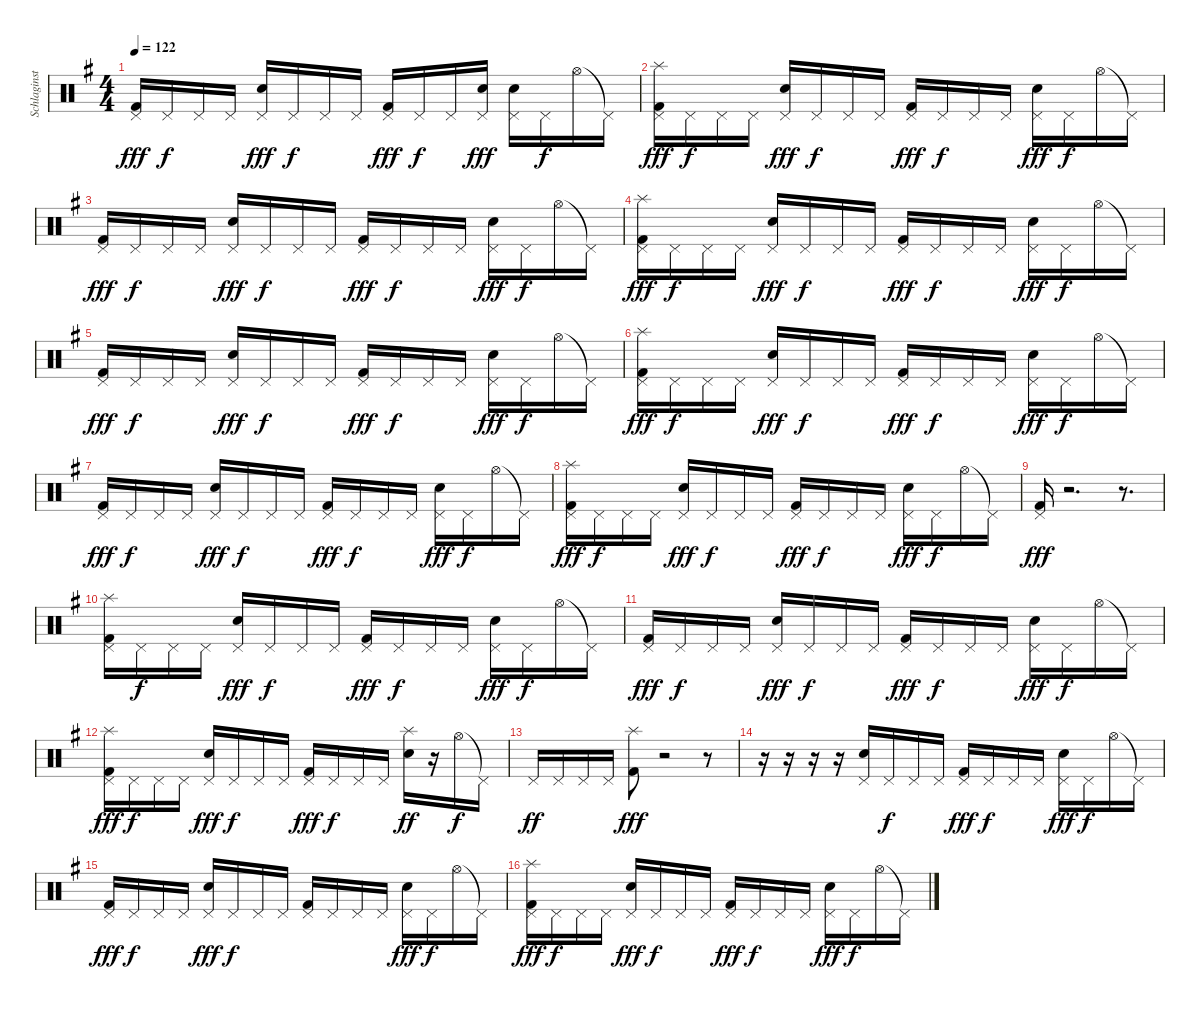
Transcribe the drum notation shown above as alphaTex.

\track ("Schlaginstrumente - Auswahl" "Schlaginst") {instrument percussion}
\staff {score}
\articulation defaults
\ts (4 4)
\tempo 122
\clef neutral
\ks g
("Pedal Hi-Hat (hit)" "Kick (hit) 2").16{dy fff} "Pedal Hi-Hat (hit)".16{dy f} "Pedal Hi-Hat (hit)".16 "Pedal Hi-Hat (hit)".16 ("Pedal Hi-Hat (hit)" "Electric Snare (hit)").16{dy fff} "Pedal Hi-Hat (hit)".16{dy f} "Pedal Hi-Hat (hit)".16 "Pedal Hi-Hat (hit)".16 ("Pedal Hi-Hat (hit)" "Kick (hit) 2").16{dy fff} "Pedal Hi-Hat (hit)".16{dy f} "Pedal Hi-Hat (hit)".16 ("Pedal Hi-Hat (hit)" "Electric Snare (hit)").16{dy fff} ("Pedal Hi-Hat (hit)" "Electric Snare (hit)").16 "Pedal Hi-Hat (hit)".16{dy f} "Hi-Hat (open)".16 "Pedal Hi-Hat (hit)"{t}.16 |
("Splash (hit)" "Pedal Hi-Hat (hit)" "Kick (hit) 2").16{dy fff} "Pedal Hi-Hat (hit)".16{dy f} "Pedal Hi-Hat (hit)".16 "Pedal Hi-Hat (hit)".16 ("Pedal Hi-Hat (hit)" "Electric Snare (hit)").16{dy fff} "Pedal Hi-Hat (hit)".16{dy f} "Pedal Hi-Hat (hit)".16 "Pedal Hi-Hat (hit)".16 ("Pedal Hi-Hat (hit)" "Kick (hit) 2").16{dy fff} "Pedal Hi-Hat (hit)".16{dy f} "Pedal Hi-Hat (hit)".16 "Pedal Hi-Hat (hit)".16 ("Pedal Hi-Hat (hit)" "Electric Snare (hit)").16{dy fff} "Pedal Hi-Hat (hit)".16{dy f} "Hi-Hat (open)".16 "Pedal Hi-Hat (hit)"{t}.16 |
("Pedal Hi-Hat (hit)" "Kick (hit) 2").16{dy fff} "Pedal Hi-Hat (hit)".16{dy f} "Pedal Hi-Hat (hit)".16 "Pedal Hi-Hat (hit)".16 ("Pedal Hi-Hat (hit)" "Electric Snare (hit)").16{dy fff} "Pedal Hi-Hat (hit)".16{dy f} "Pedal Hi-Hat (hit)".16 "Pedal Hi-Hat (hit)".16 ("Pedal Hi-Hat (hit)" "Kick (hit) 2").16{dy fff} "Pedal Hi-Hat (hit)".16{dy f} "Pedal Hi-Hat (hit)".16 "Pedal Hi-Hat (hit)".16 ("Pedal Hi-Hat (hit)" "Electric Snare (hit)").16{dy fff} "Pedal Hi-Hat (hit)".16{dy f} "Hi-Hat (open)".16 "Pedal Hi-Hat (hit)"{t}.16 |
("Splash (hit)" "Pedal Hi-Hat (hit)" "Kick (hit) 2").16{dy fff} "Pedal Hi-Hat (hit)".16{dy f} "Pedal Hi-Hat (hit)".16 "Pedal Hi-Hat (hit)".16 ("Pedal Hi-Hat (hit)" "Electric Snare (hit)").16{dy fff} "Pedal Hi-Hat (hit)".16{dy f} "Pedal Hi-Hat (hit)".16 "Pedal Hi-Hat (hit)".16 ("Pedal Hi-Hat (hit)" "Kick (hit) 2").16{dy fff} "Pedal Hi-Hat (hit)".16{dy f} "Pedal Hi-Hat (hit)".16 "Pedal Hi-Hat (hit)".16 ("Pedal Hi-Hat (hit)" "Electric Snare (hit)").16{dy fff} "Pedal Hi-Hat (hit)".16{dy f} "Hi-Hat (open)".16 "Pedal Hi-Hat (hit)"{t}.16 |
("Pedal Hi-Hat (hit)" "Kick (hit) 2").16{dy fff} "Pedal Hi-Hat (hit)".16{dy f} "Pedal Hi-Hat (hit)".16 "Pedal Hi-Hat (hit)".16 ("Pedal Hi-Hat (hit)" "Electric Snare (hit)").16{dy fff} "Pedal Hi-Hat (hit)".16{dy f} "Pedal Hi-Hat (hit)".16 "Pedal Hi-Hat (hit)".16 ("Pedal Hi-Hat (hit)" "Kick (hit) 2").16{dy fff} "Pedal Hi-Hat (hit)".16{dy f} "Pedal Hi-Hat (hit)".16 "Pedal Hi-Hat (hit)".16 ("Pedal Hi-Hat (hit)" "Electric Snare (hit)").16{dy fff} "Pedal Hi-Hat (hit)".16{dy f} "Hi-Hat (open)".16 "Pedal Hi-Hat (hit)"{t}.16 |
("Splash (hit)" "Pedal Hi-Hat (hit)" "Kick (hit) 2").16{dy fff} "Pedal Hi-Hat (hit)".16{dy f} "Pedal Hi-Hat (hit)".16 "Pedal Hi-Hat (hit)".16 ("Pedal Hi-Hat (hit)" "Electric Snare (hit)").16{dy fff} "Pedal Hi-Hat (hit)".16{dy f} "Pedal Hi-Hat (hit)".16 "Pedal Hi-Hat (hit)".16 ("Pedal Hi-Hat (hit)" "Kick (hit) 2").16{dy fff} "Pedal Hi-Hat (hit)".16{dy f} "Pedal Hi-Hat (hit)".16 "Pedal Hi-Hat (hit)".16 ("Pedal Hi-Hat (hit)" "Electric Snare (hit)").16{dy fff} "Pedal Hi-Hat (hit)".16{dy f} "Hi-Hat (open)".16 "Pedal Hi-Hat (hit)"{t}.16 |
("Pedal Hi-Hat (hit)" "Kick (hit) 2").16{dy fff} "Pedal Hi-Hat (hit)".16{dy f} "Pedal Hi-Hat (hit)".16 "Pedal Hi-Hat (hit)".16 ("Pedal Hi-Hat (hit)" "Electric Snare (hit)").16{dy fff} "Pedal Hi-Hat (hit)".16{dy f} "Pedal Hi-Hat (hit)".16 "Pedal Hi-Hat (hit)".16 ("Pedal Hi-Hat (hit)" "Kick (hit) 2").16{dy fff} "Pedal Hi-Hat (hit)".16{dy f} "Pedal Hi-Hat (hit)".16 "Pedal Hi-Hat (hit)".16 ("Pedal Hi-Hat (hit)" "Electric Snare (hit)").16{dy fff} "Pedal Hi-Hat (hit)".16{dy f} "Hi-Hat (open)".16 "Pedal Hi-Hat (hit)"{t}.16 |
("Splash (hit)" "Pedal Hi-Hat (hit)" "Kick (hit) 2").16{dy fff} "Pedal Hi-Hat (hit)".16{dy f} "Pedal Hi-Hat (hit)".16 "Pedal Hi-Hat (hit)".16 ("Pedal Hi-Hat (hit)" "Electric Snare (hit)").16{dy fff} "Pedal Hi-Hat (hit)".16{dy f} "Pedal Hi-Hat (hit)".16 "Pedal Hi-Hat (hit)".16 ("Pedal Hi-Hat (hit)" "Kick (hit) 2").16{dy fff} "Pedal Hi-Hat (hit)".16{dy f} "Pedal Hi-Hat (hit)".16 "Pedal Hi-Hat (hit)".16 ("Pedal Hi-Hat (hit)" "Electric Snare (hit)").16{dy fff} "Pedal Hi-Hat (hit)".16{dy f} "Hi-Hat (open)".16 "Pedal Hi-Hat (hit)"{t}.16 |
("Pedal Hi-Hat (hit)" "Kick (hit) 2").16{dy fff} r.2{d} r.8{d} |
("Splash (hit)" "Pedal Hi-Hat (hit)" "Kick (hit) 2").16 "Pedal Hi-Hat (hit)".16{dy f} "Pedal Hi-Hat (hit)".16 "Pedal Hi-Hat (hit)".16 ("Pedal Hi-Hat (hit)" "Electric Snare (hit)").16{dy fff} "Pedal Hi-Hat (hit)".16{dy f} "Pedal Hi-Hat (hit)".16 "Pedal Hi-Hat (hit)".16 ("Pedal Hi-Hat (hit)" "Kick (hit) 2").16{dy fff} "Pedal Hi-Hat (hit)".16{dy f} "Pedal Hi-Hat (hit)".16 "Pedal Hi-Hat (hit)".16 ("Pedal Hi-Hat (hit)" "Electric Snare (hit)").16{dy fff} "Pedal Hi-Hat (hit)".16{dy f} "Hi-Hat (open)".16 "Pedal Hi-Hat (hit)"{t}.16 |
("Pedal Hi-Hat (hit)" "Kick (hit) 2").16{dy fff} "Pedal Hi-Hat (hit)".16{dy f} "Pedal Hi-Hat (hit)".16 "Pedal Hi-Hat (hit)".16 ("Pedal Hi-Hat (hit)" "Electric Snare (hit)").16{dy fff} "Pedal Hi-Hat (hit)".16{dy f} "Pedal Hi-Hat (hit)".16 "Pedal Hi-Hat (hit)".16 ("Pedal Hi-Hat (hit)" "Kick (hit) 2").16{dy fff} "Pedal Hi-Hat (hit)".16{dy f} "Pedal Hi-Hat (hit)".16 "Pedal Hi-Hat (hit)".16 ("Pedal Hi-Hat (hit)" "Electric Snare (hit)").16{dy fff} "Pedal Hi-Hat (hit)".16{dy f} "Hi-Hat (open)".16 "Pedal Hi-Hat (hit)"{t}.16 |
("Splash (hit)" "Pedal Hi-Hat (hit)" "Kick (hit) 2").16{dy fff} "Pedal Hi-Hat (hit)".16{dy f} "Pedal Hi-Hat (hit)".16 "Pedal Hi-Hat (hit)".16 ("Pedal Hi-Hat (hit)" "Electric Snare (hit)").16{dy fff} "Pedal Hi-Hat (hit)".16{dy f} "Pedal Hi-Hat (hit)".16 "Pedal Hi-Hat (hit)".16 ("Pedal Hi-Hat (hit)" "Kick (hit) 2").16{dy fff} "Pedal Hi-Hat (hit)".16{dy f} "Pedal Hi-Hat (hit)".16 "Pedal Hi-Hat (hit)".16 ("Splash (hit)" "Electric Snare (hit)").16{dy ff} r.16 "Hi-Hat (open)".16{dy f} "Pedal Hi-Hat (hit)"{t}.16 |
"Pedal Hi-Hat (hit)".16{dy ff} "Pedal Hi-Hat (hit)".16 "Pedal Hi-Hat (hit)".16 "Pedal Hi-Hat (hit)".16 ("Splash (hit)" "Kick (hit) 2").8{dy fff} r.2 r.8 |
r.16 r.16 r.16 r.16 ("Pedal Hi-Hat (hit)" "Electric Snare (hit)").16 "Pedal Hi-Hat (hit)".16{dy f} "Pedal Hi-Hat (hit)".16 "Pedal Hi-Hat (hit)".16 ("Pedal Hi-Hat (hit)" "Kick (hit) 2").16{dy fff} "Pedal Hi-Hat (hit)".16{dy f} "Pedal Hi-Hat (hit)".16 "Pedal Hi-Hat (hit)".16 ("Pedal Hi-Hat (hit)" "Electric Snare (hit)").16{dy fff} "Pedal Hi-Hat (hit)".16{dy f} "Hi-Hat (open)".16 "Pedal Hi-Hat (hit)"{t}.16 |
("Pedal Hi-Hat (hit)" "Kick (hit) 2").16{dy fff} "Pedal Hi-Hat (hit)".16{dy f} "Pedal Hi-Hat (hit)".16 "Pedal Hi-Hat (hit)".16 ("Pedal Hi-Hat (hit)" "Electric Snare (hit)").16{dy fff} "Pedal Hi-Hat (hit)".16{dy f} "Pedal Hi-Hat (hit)".16 "Pedal Hi-Hat (hit)".16 ("Pedal Hi-Hat (hit)" "Kick (hit) 2").16 "Pedal Hi-Hat (hit)".16 "Pedal Hi-Hat (hit)".16 "Pedal Hi-Hat (hit)".16 ("Pedal Hi-Hat (hit)" "Electric Snare (hit)").16{dy fff} "Pedal Hi-Hat (hit)".16{dy f} "Hi-Hat (open)".16 "Pedal Hi-Hat (hit)"{t}.16 |
("Splash (hit)" "Pedal Hi-Hat (hit)" "Kick (hit) 2").16{dy fff} "Pedal Hi-Hat (hit)".16{dy f} "Pedal Hi-Hat (hit)".16 "Pedal Hi-Hat (hit)".16 ("Pedal Hi-Hat (hit)" "Electric Snare (hit)").16{dy fff} "Pedal Hi-Hat (hit)".16{dy f} "Pedal Hi-Hat (hit)".16 "Pedal Hi-Hat (hit)".16 ("Pedal Hi-Hat (hit)" "Kick (hit) 2").16{dy fff} "Pedal Hi-Hat (hit)".16{dy f} "Pedal Hi-Hat (hit)".16 "Pedal Hi-Hat (hit)".16 ("Pedal Hi-Hat (hit)" "Electric Snare (hit)").16{dy fff} "Pedal Hi-Hat (hit)".16{dy f} "Hi-Hat (open)".16 "Pedal Hi-Hat (hit)"{t}.16
